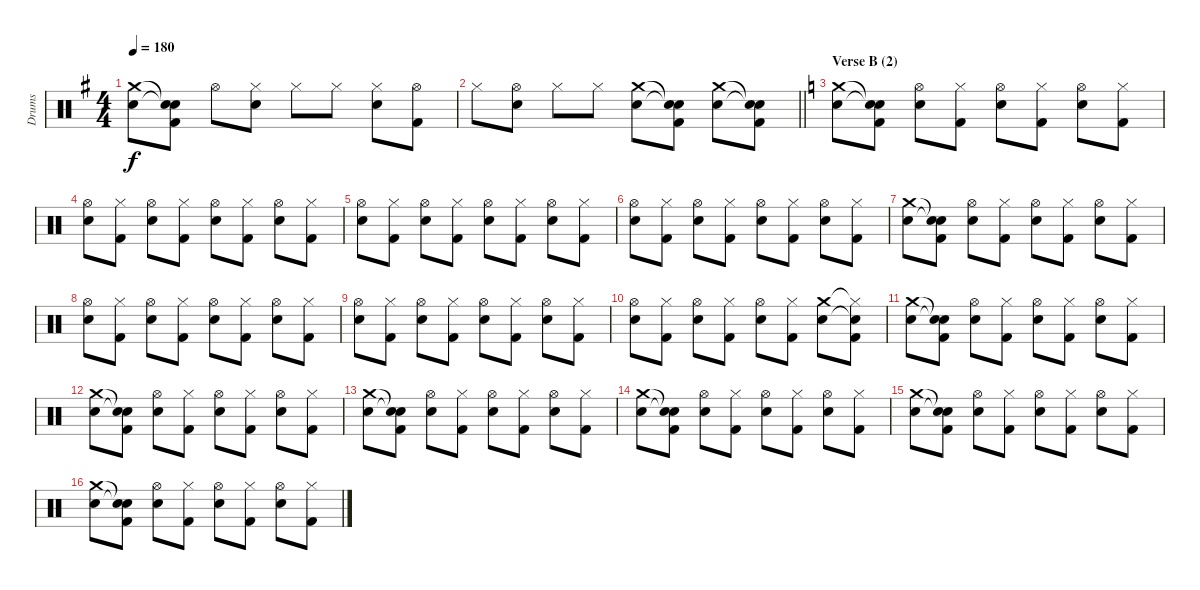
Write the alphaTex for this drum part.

\track ("Drums" "Drums") {instrument percussion}
\staff {score}
\articulation defaults
\ts (4 4)
\tempo 180
\clef neutral
\ks g
("Crash medium (hit)" "Electric Snare (hit)").8{dy f} ("Snare (hit)"{t} "Snare (hit)"{t} "Kick (hit) 2").8 "Hi-Hat (open)".8 ("Hi-Hat (closed)" "Electric Snare (hit)").8 "Hi-Hat (closed)".8 "Hi-Hat (closed)".8 ("Hi-Hat (closed)" "Electric Snare (hit)").8 ("Hi-Hat (open)" "Kick (hit) 2").8 |
\barLineRight lightlight "Hi-Hat (closed)".8
("Hi-Hat (open)" "Electric Snare (hit)").8 "Hi-Hat (closed)".8 "Hi-Hat (closed)".8 ("Crash medium (hit)" "Electric Snare (hit)").8 ("Snare (hit)"{t} "Snare (hit)"{t} "Kick (hit) 2").8 ("Crash medium (hit)" "Electric Snare (hit)").8 ("Snare (hit)"{t} "Snare (hit)"{t} "Kick (hit) 2").8 |
\section ("" "Verse B (2)")
\ks c
("Crash medium (hit)" "Electric Snare (hit)").8 ("Snare (hit)"{t} "Snare (hit)"{t} "Kick (hit) 2").8 ("Hi-Hat (open)" "Electric Snare (hit)").8 ("Hi-Hat (closed)" "Kick (hit) 2").8 ("Hi-Hat (open)" "Electric Snare (hit)").8 ("Hi-Hat (closed)" "Kick (hit) 2").8 ("Hi-Hat (open)" "Electric Snare (hit)").8 ("Hi-Hat (closed)" "Kick (hit) 2").8 |
("Hi-Hat (open)" "Electric Snare (hit)").8 ("Hi-Hat (closed)" "Kick (hit) 2").8 ("Hi-Hat (open)" "Electric Snare (hit)").8 ("Hi-Hat (closed)" "Kick (hit) 2").8 ("Hi-Hat (open)" "Electric Snare (hit)").8 ("Hi-Hat (closed)" "Kick (hit) 2").8 ("Hi-Hat (open)" "Electric Snare (hit)").8 ("Hi-Hat (closed)" "Kick (hit) 2").8 |
("Hi-Hat (open)" "Electric Snare (hit)").8 ("Hi-Hat (closed)" "Kick (hit) 2").8 ("Hi-Hat (open)" "Electric Snare (hit)").8 ("Hi-Hat (closed)" "Kick (hit) 2").8 ("Hi-Hat (open)" "Electric Snare (hit)").8 ("Hi-Hat (closed)" "Kick (hit) 2").8 ("Hi-Hat (open)" "Electric Snare (hit)").8 ("Hi-Hat (closed)" "Kick (hit) 2").8 |
("Hi-Hat (open)" "Electric Snare (hit)").8 ("Hi-Hat (closed)" "Kick (hit) 2").8 ("Hi-Hat (open)" "Electric Snare (hit)").8 ("Hi-Hat (closed)" "Kick (hit) 2").8 ("Hi-Hat (open)" "Electric Snare (hit)").8 ("Hi-Hat (closed)" "Kick (hit) 2").8 ("Hi-Hat (open)" "Electric Snare (hit)").8 ("Hi-Hat (closed)" "Kick (hit) 2").8 |
("Crash medium (hit)" "Electric Snare (hit)").8 ("Snare (hit)"{t} "Snare (hit)"{t} "Kick (hit) 2").8 ("Hi-Hat (open)" "Electric Snare (hit)").8 ("Hi-Hat (closed)" "Kick (hit) 2").8 ("Hi-Hat (open)" "Electric Snare (hit)").8 ("Hi-Hat (closed)" "Kick (hit) 2").8 ("Hi-Hat (open)" "Electric Snare (hit)").8 ("Hi-Hat (closed)" "Kick (hit) 2").8 |
("Hi-Hat (open)" "Electric Snare (hit)").8 ("Hi-Hat (closed)" "Kick (hit) 2").8 ("Hi-Hat (open)" "Electric Snare (hit)").8 ("Hi-Hat (closed)" "Kick (hit) 2").8 ("Hi-Hat (open)" "Electric Snare (hit)").8 ("Hi-Hat (closed)" "Kick (hit) 2").8 ("Hi-Hat (open)" "Electric Snare (hit)").8 ("Hi-Hat (closed)" "Kick (hit) 2").8 |
("Hi-Hat (open)" "Electric Snare (hit)").8 ("Hi-Hat (closed)" "Kick (hit) 2").8 ("Hi-Hat (open)" "Electric Snare (hit)").8 ("Hi-Hat (closed)" "Kick (hit) 2").8 ("Hi-Hat (open)" "Electric Snare (hit)").8 ("Hi-Hat (closed)" "Kick (hit) 2").8 ("Hi-Hat (open)" "Electric Snare (hit)").8 ("Hi-Hat (closed)" "Kick (hit) 2").8 |
("Hi-Hat (open)" "Electric Snare (hit)").8 ("Hi-Hat (closed)" "Kick (hit) 2").8 ("Hi-Hat (open)" "Electric Snare (hit)").8 ("Hi-Hat (closed)" "Kick (hit) 2").8 ("Hi-Hat (open)" "Electric Snare (hit)").8 ("Hi-Hat (closed)" "Kick (hit) 2").8 ("Crash medium (hit)" "Electric Snare (hit)").8 ("Hi-Hat (closed)"{t} "Snare (hit)"{t} "Kick (hit) 2").8 |
("Crash medium (hit)" "Electric Snare (hit)").8 ("Snare (hit)"{t} "Snare (hit)"{t} "Kick (hit) 2").8 ("Hi-Hat (open)" "Electric Snare (hit)").8 ("Hi-Hat (closed)" "Kick (hit) 2").8 ("Hi-Hat (open)" "Electric Snare (hit)").8 ("Hi-Hat (closed)" "Kick (hit) 2").8 ("Hi-Hat (open)" "Electric Snare (hit)").8 ("Hi-Hat (closed)" "Kick (hit) 2").8 |
("Crash medium (hit)" "Electric Snare (hit)").8 ("Snare (hit)"{t} "Snare (hit)"{t} "Kick (hit) 2").8 ("Hi-Hat (open)" "Electric Snare (hit)").8 ("Hi-Hat (closed)" "Kick (hit) 2").8 ("Hi-Hat (open)" "Electric Snare (hit)").8 ("Hi-Hat (closed)" "Kick (hit) 2").8 ("Hi-Hat (open)" "Electric Snare (hit)").8 ("Hi-Hat (closed)" "Kick (hit) 2").8 |
("Crash medium (hit)" "Electric Snare (hit)").8 ("Snare (hit)"{t} "Snare (hit)"{t} "Kick (hit) 2").8 ("Hi-Hat (open)" "Electric Snare (hit)").8 ("Hi-Hat (closed)" "Kick (hit) 2").8 ("Hi-Hat (open)" "Electric Snare (hit)").8 ("Hi-Hat (closed)" "Kick (hit) 2").8 ("Hi-Hat (open)" "Electric Snare (hit)").8 ("Hi-Hat (closed)" "Kick (hit) 2").8 |
("Crash medium (hit)" "Electric Snare (hit)").8 ("Snare (hit)"{t} "Snare (hit)"{t} "Kick (hit) 2").8 ("Hi-Hat (open)" "Electric Snare (hit)").8 ("Hi-Hat (closed)" "Kick (hit) 2").8 ("Hi-Hat (open)" "Electric Snare (hit)").8 ("Hi-Hat (closed)" "Kick (hit) 2").8 ("Hi-Hat (open)" "Electric Snare (hit)").8 ("Hi-Hat (closed)" "Kick (hit) 2").8 |
("Crash medium (hit)" "Electric Snare (hit)").8 ("Snare (hit)"{t} "Snare (hit)"{t} "Kick (hit) 2").8 ("Hi-Hat (open)" "Electric Snare (hit)").8 ("Hi-Hat (closed)" "Kick (hit) 2").8 ("Hi-Hat (open)" "Electric Snare (hit)").8 ("Hi-Hat (closed)" "Kick (hit) 2").8 ("Hi-Hat (open)" "Electric Snare (hit)").8 ("Hi-Hat (closed)" "Kick (hit) 2").8 |
("Crash medium (hit)" "Electric Snare (hit)").8 ("Snare (hit)"{t} "Snare (hit)"{t} "Kick (hit) 2").8 ("Hi-Hat (open)" "Electric Snare (hit)").8 ("Hi-Hat (closed)" "Kick (hit) 2").8 ("Hi-Hat (open)" "Electric Snare (hit)").8 ("Hi-Hat (closed)" "Kick (hit) 2").8 ("Hi-Hat (open)" "Electric Snare (hit)").8 ("Hi-Hat (closed)" "Kick (hit) 2").8
